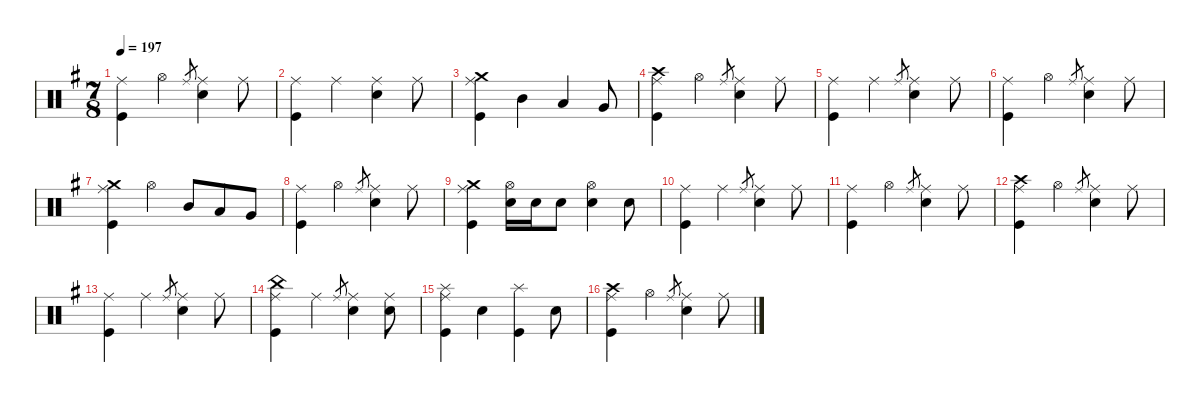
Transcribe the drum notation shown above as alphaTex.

\defaultSystemsLayout 4
\hideDynamics
\bracketExtendMode nobrackets
\singleTrackTrackNamePolicy hidden
\multiTrackTrackNamePolicy hidden
\firstSystemTrackNameMode fullname
\firstSystemTrackNameOrientation horizontal
\otherSystemsTrackNameOrientation horizontal
\track ("Drums" "drm.") {defaultSystemsLayout 4 instrument percussion}
\staff {score}
\articulation defaults
\ts (7 8)
\tempo 197
\clef neutral
\ks eminor
("Ride (middle)"{acc forcenatural} "Kick (hit)"{acc forcenatural}).4{dy f beam Down} "Hi-Hat (open)"{acc forcenatural}.4{beam Down} "Ride (middle)"{acc forcenatural}.8{gr dy mf beam Up} ("Ride (middle)"{acc forcenatural} "Snare (hit) 2"{acc forcenatural}).4{dy f beam Down} "Ride (middle)"{acc forcenatural}.8{beam Down} |
("Ride (middle)"{acc forcenatural} "Kick (hit)"{acc forcenatural}).4{beam Down} "Ride (middle)"{acc forcenatural}.4{beam Down} ("Ride (middle)"{acc forcenatural} "Snare (hit) 2"{acc forcenatural}).4{beam Down} "Ride (middle)"{acc forcenatural}.8{beam Down} |
("Crash medium (hit)"{acc forcenatural} "Ride (middle)"{acc forcenatural} "Kick (hit)"{acc forcenatural}).4{dy mp beam Down} "Mid Tom (hit)"{acc forcenatural}.4{dy f beam Down} "Low Tom (hit)"{acc forcenatural}.4{beam Up} "Very Low Tom (hit)"{acc forcenatural}.8{beam Up} |
("Crash high (hit)"{acc forcenatural} "Ride (middle)"{acc forcenatural} "Kick (hit)"{acc forcenatural}).4{dy mf beam Down} "Hi-Hat (open)"{acc forcenatural}.4{dy f beam Down} "Ride (middle)"{acc forcenatural}.8{gr dy mf beam Up} ("Ride (middle)"{acc forcenatural} "Snare (hit) 2"{acc forcenatural}).4{dy f beam Down} "Ride (middle)"{acc forcenatural}.8{beam Down} |
("Ride (middle)"{acc forcenatural} "Kick (hit)"{acc forcenatural}).4{beam Down} "Ride (middle)"{acc forcenatural}.4{beam Down} "Ride (middle)"{acc forcenatural}.8{gr dy mf beam Up} ("Ride (middle)"{acc forcenatural} "Snare (hit) 2"{acc forcenatural}).4{dy f beam Down} "Ride (middle)"{acc forcenatural}.8{beam Down} |
("Ride (middle)"{acc forcenatural} "Kick (hit)"{acc forcenatural}).4{beam Down} "Hi-Hat (open)"{acc forcenatural}.4{beam Down} "Ride (middle)"{acc forcenatural}.8{gr dy mf beam Up} ("Ride (middle)"{acc forcenatural} "Snare (hit) 2"{acc forcenatural}).4{dy f beam Down} "Ride (middle)"{acc forcenatural}.8{beam Down} |
("Crash medium (hit)"{acc forcenatural} "Ride (middle)"{acc forcenatural} "Kick (hit)"{acc forcenatural}).4{dy mp beam Down} "Hi-Hat (open)"{acc forcenatural}.4{dy f beam Down} "Mid Tom (hit)"{acc forcenatural}.8{beam Up} "Low Tom (hit)"{acc forcenatural}.8{beam Up} "Very Low Tom (hit)"{acc forcenatural}.8{beam Up} |
("Ride (middle)"{acc forcenatural} "Kick (hit)"{acc forcenatural}).4{beam Down} "Hi-Hat (open)"{acc forcenatural}.4{beam Down} "Ride (middle)"{acc forcenatural}.8{gr dy mf beam Up} ("Ride (middle)"{acc forcenatural} "Snare (hit) 2"{acc forcenatural}).4{dy f beam Down} "Ride (middle)"{acc forcenatural}.8{beam Down} |
("Crash medium (hit)"{acc forcenatural} "Ride (middle)"{acc forcenatural} "Kick (hit)"{acc forcenatural}).4{dy mp beam Down} ("Hi-Hat (open)"{acc forcenatural} "Snare (hit) 2"{acc forcenatural}).16{dy f beam Down} "Snare (hit) 2"{acc forcenatural}.16{dy mp beam Down} "Snare (hit) 2"{acc forcenatural}.8{dy mf beam Down} ("Hi-Hat (open)"{acc forcenatural} "Snare (hit) 2"{acc forcenatural}).4{dy f beam Down} "Snare (hit) 2"{acc forcenatural}.8{beam Down} |
("Ride (middle)"{acc forcenatural} "Kick (hit)"{acc forcenatural}).4{beam Down} "Ride (middle)"{acc forcenatural}.4{beam Down} "Ride (middle)"{acc forcenatural}.8{gr dy mf beam Up} ("Ride (middle)"{acc forcenatural} "Snare (hit) 2"{acc forcenatural}).4{dy f beam Down} "Ride (middle)"{acc forcenatural}.8{beam Down} |
("Ride (middle)"{acc forcenatural} "Kick (hit)"{acc forcenatural}).4{beam Down} "Hi-Hat (open)"{acc forcenatural}.4{beam Down} "Ride (middle)"{acc forcenatural}.8{gr dy mf beam Up} ("Ride (middle)"{acc forcenatural} "Snare (hit) 2"{acc forcenatural}).4{dy f beam Down} "Ride (middle)"{acc forcenatural}.8{beam Down} |
("Crash high (hit)"{acc forcenatural} "Ride (middle)"{acc forcenatural} "Kick (hit)"{acc forcenatural}).4{dy mf beam Down} "Hi-Hat (open)"{acc forcenatural}.4{dy f beam Down} "Ride (middle)"{acc forcenatural}.8{gr dy mf beam Up} ("Ride (middle)"{acc forcenatural} "Snare (hit) 2"{acc forcenatural}).4{dy f beam Down} "Ride (middle)"{acc forcenatural}.8{beam Down} |
("Ride (middle)"{acc forcenatural} "Kick (hit)"{acc forcenatural}).4{beam Down} "Ride (middle)"{acc forcenatural}.4{beam Down} "Ride (middle)"{acc forcenatural}.8{gr dy mf beam Up} ("Ride (middle)"{acc forcenatural} "Snare (hit) 2"{acc forcenatural}).4{dy f beam Down} "Ride (middle)"{acc forcenatural}.8{beam Down} |
("China (hit)"{acc forcenatural} "Ride (middle)"{acc forcenatural} "Kick (hit)"{acc forcenatural}).4{dy mf beam Down} "Ride (middle)"{acc forcenatural}.4{dy f beam Down} "Ride (middle)"{acc forcenatural}.8{gr dy mf beam Up} ("Ride (middle)"{acc forcenatural} "Snare (hit) 2"{acc forcenatural}).4{dy f beam Down} ("Ride (middle)"{acc forcenatural} "Snare (hit) 2"{acc forcenatural}).8{beam Down} |
("Splash (hit)"{acc forcenatural} "Ride (middle)"{acc forcenatural} "Kick (hit)"{acc forcenatural}).4{dy mp beam Down} "Snare (hit) 2"{acc forcenatural}.4{dy f beam Down} ("Splash (hit)"{acc forcenatural} "Kick (hit)"{acc forcenatural}).4{dy mp beam Down} "Snare (hit) 2"{acc forcenatural}.8{dy f beam Down} |
("Crash high (hit)"{acc forcenatural} "Ride (middle)"{acc forcenatural} "Kick (hit)"{acc forcenatural}).4{dy mf beam Down} "Hi-Hat (open)"{acc forcenatural}.4{dy f beam Down} "Ride (middle)"{acc forcenatural}.8{gr dy mf beam Up} ("Ride (middle)"{acc forcenatural} "Snare (hit) 2"{acc forcenatural}).4{dy f beam Down} "Ride (middle)"{acc forcenatural}.8{beam Down}
